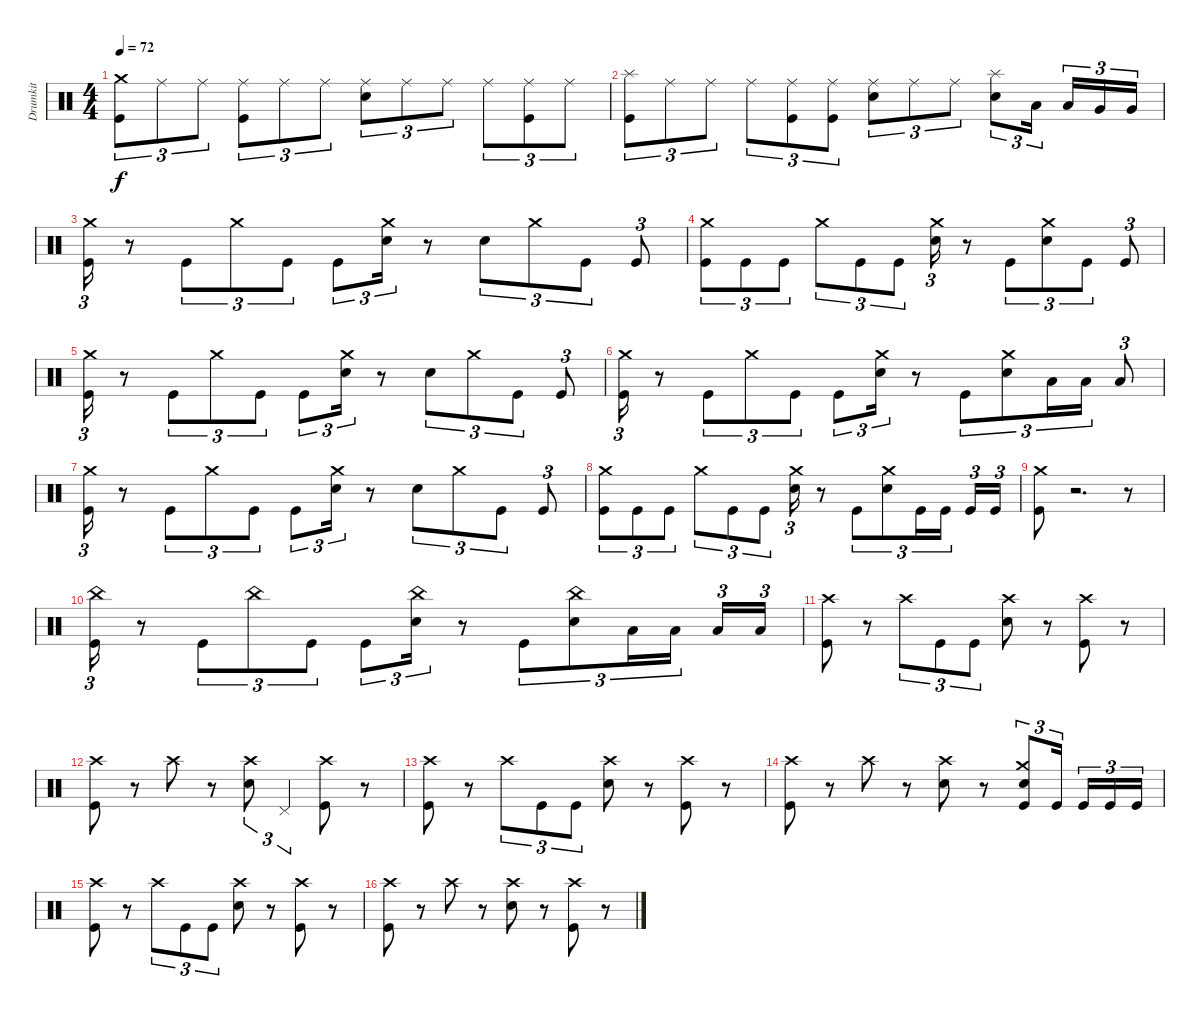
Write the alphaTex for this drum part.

\track ("Drumkit" "Drumkit") {instrument percussion}
\staff {score}
\articulation defaults
\ts (4 4)
\tempo 72
\clef neutral
\ks c
("Kick (hit)" "Crash medium (hit)").8{tu (3 2) dy f} "Ride (middle)".8{tu (3 2)} "Ride (middle)".8{tu (3 2)} ("Kick (hit)" "Ride (middle)").8{tu (3 2)} "Ride (middle)".8{tu (3 2)} "Ride (middle)".8{tu (3 2)} ("Snare (hit) 2" "Ride (middle)").8{tu (3 2)} "Ride (middle)".8{tu (3 2)} "Ride (middle)".8{tu (3 2)} "Ride (middle)".8{tu (3 2)} ("Kick (hit)" "Ride (middle)").8{tu (3 2)} "Ride (middle)".8{tu (3 2)} |
("Kick (hit)" "Splash (hit)").8{tu (3 2)} "Ride (middle)".8{tu (3 2)} "Ride (middle)".8{tu (3 2)} "Ride (middle)".8{tu (3 2)} ("Kick (hit)" "Ride (middle)").8{tu (3 2)} ("Kick (hit)" "Ride (middle)").8{tu (3 2)} ("Snare (hit) 2" "Ride (middle)").8{tu (3 2)} "Ride (middle)".8{tu (3 2)} "Ride (middle)".8{tu (3 2)} ("Snare (hit) 2" "Splash (hit)").8{tu (3 2)} "Low Tom (hit)".16{tu (3 2) beam splitsecondary} "Low Tom (hit)".16{tu (3 2)} "Very Low Tom (hit)".16{tu (3 2)} "Very Low Tom (hit)".16{tu (3 2)} |
("Kick (hit)" "Crash medium (hit)").16{tu (3 2)} r.8 "Kick (hit)".8{tu (3 2)} "Crash medium (hit)".8{tu (3 2)} "Kick (hit)".8{tu (3 2)} "Kick (hit)".8{tu (3 2)} ("Snare (hit) 2" "Crash medium (hit)").16{tu (3 2)} r.8 "Snare (hit) 2".8{tu (3 2)} "Crash medium (hit)".8{tu (3 2)} "Kick (hit)".8{tu (3 2)} "Kick (hit)".8{tu (3 2)} |
("Kick (hit)" "Crash medium (hit)").8{tu (3 2)} "Kick (hit)".8{tu (3 2)} "Kick (hit)".8{tu (3 2)} "Crash medium (hit)".8{tu (3 2)} "Kick (hit)".8{tu (3 2)} "Kick (hit)".8{tu (3 2)} ("Snare (hit) 2" "Crash medium (hit)").16{tu (3 2)} r.8 "Kick (hit)".8{tu (3 2)} ("Snare (hit) 2" "Crash medium (hit)").8{tu (3 2)} "Kick (hit)".8{tu (3 2)} "Kick (hit)".8{tu (3 2)} |
("Kick (hit)" "Crash medium (hit)").16{tu (3 2)} r.8 "Kick (hit)".8{tu (3 2)} "Crash medium (hit)".8{tu (3 2)} "Kick (hit)".8{tu (3 2)} "Kick (hit)".8{tu (3 2)} ("Snare (hit) 2" "Crash medium (hit)").16{tu (3 2)} r.8 "Snare (hit) 2".8{tu (3 2)} "Crash medium (hit)".8{tu (3 2)} "Kick (hit)".8{tu (3 2)} "Kick (hit)".8{tu (3 2)} |
("Kick (hit)" "Crash medium (hit)").16{tu (3 2)} r.8 "Kick (hit)".8{tu (3 2)} "Crash medium (hit)".8{tu (3 2)} "Kick (hit)".8{tu (3 2)} "Kick (hit)".8{tu (3 2)} ("Snare (hit) 2" "Crash medium (hit)").16{tu (3 2)} r.8 "Kick (hit)".8{tu (3 2)} ("Snare (hit) 2" "Crash medium (hit)").8{tu (3 2)} "Low Tom (hit)".16{tu (3 2)} "Low Tom (hit)".16{tu (3 2)} "Low Floor Tom (hit)".8{tu (3 2)} |
("Kick (hit)" "Crash medium (hit)").16{tu (3 2)} r.8 "Kick (hit)".8{tu (3 2)} "Crash medium (hit)".8{tu (3 2)} "Kick (hit)".8{tu (3 2)} "Kick (hit)".8{tu (3 2)} ("Snare (hit) 2" "Crash medium (hit)").16{tu (3 2)} r.8 "Snare (hit) 2".8{tu (3 2)} "Crash medium (hit)".8{tu (3 2)} "Kick (hit)".8{tu (3 2)} "Kick (hit)".8{tu (3 2)} |
("Kick (hit)" "Crash medium (hit)").8{tu (3 2)} "Kick (hit)".8{tu (3 2)} "Kick (hit)".8{tu (3 2)} "Crash medium (hit)".8{tu (3 2)} "Kick (hit)".8{tu (3 2)} "Kick (hit)".8{tu (3 2)} ("Snare (hit) 2" "Crash medium (hit)").16{tu (3 2)} r.8 "Kick (hit)".8{tu (3 2)} ("Snare (hit) 2" "Crash medium (hit)").8{tu (3 2)} "Kick (hit)".16{tu (3 2)} "Kick (hit)".16{tu (3 2) beam splitsecondary} "Kick (hit)".16{tu (3 2)} "Kick (hit)".16{tu (3 2)} |
("Kick (hit)" "Crash medium (hit)").8 r.2{d} r.8 |
("Kick (hit)" "China (hit)").16{tu (3 2)} r.8 "Kick (hit)".8{tu (3 2)} "China (hit)".8{tu (3 2)} "Kick (hit)".8{tu (3 2)} "Kick (hit)".8{tu (3 2)} ("Snare (hit) 2" "China (hit)").16{tu (3 2)} r.8 "Kick (hit)".8{tu (3 2)} ("Snare (hit) 2" "China (hit)").8{tu (3 2)} "Low Tom (hit)".16{tu (3 2)} "Low Tom (hit)".16{tu (3 2) beam splitsecondary} "Low Floor Tom (hit)".16{tu (3 2)} "Low Floor Tom (hit)".16{tu (3 2)} |
("Kick (hit)" "Crash high (hit)").8 r.8 "Crash high (hit)".8{tu (3 2)} "Kick (hit)".8{tu (3 2)} "Kick (hit)".8{tu (3 2)} ("Snare (hit) 2" "Crash high (hit)").8 r.8 ("Kick (hit)" "Crash high (hit)").8 r.8 |
("Kick (hit)" "Crash high (hit)").8 r.8 "Crash high (hit)".8 r.8 ("Snare (hit) 2" "Crash high (hit)").8{tu (3 2)} "Pedal Hi-Hat (hit)".4{tu (3 2)} ("Kick (hit)" "Crash high (hit)").8 r.8 |
("Kick (hit)" "Crash high (hit)").8 r.8 "Crash high (hit)".8{tu (3 2)} "Kick (hit)".8{tu (3 2)} "Kick (hit)".8{tu (3 2)} ("Snare (hit) 2" "Crash high (hit)").8 r.8 ("Kick (hit)" "Crash high (hit)").8 r.8 |
("Kick (hit)" "Crash high (hit)").8 r.8 "Crash high (hit)".8 r.8 ("Snare (hit) 2" "Crash high (hit)").8 r.8 ("Kick (hit)" "Snare (hit) 2" "Crash medium (hit)").8{tu (3 2)} "Kick (hit)".16{tu (3 2) beam splitsecondary} "Kick (hit)".16{tu (3 2)} "Kick (hit)".16{tu (3 2)} "Kick (hit)".16{tu (3 2)} |
("Kick (hit)" "Crash high (hit)").8 r.8 "Crash high (hit)".8{tu (3 2)} "Kick (hit)".8{tu (3 2)} "Kick (hit)".8{tu (3 2)} ("Snare (hit) 2" "Crash high (hit)").8 r.8 ("Kick (hit)" "Crash high (hit)").8 r.8 |
("Kick (hit)" "Crash high (hit)").8 r.8 "Crash high (hit)".8 r.8 ("Snare (hit) 2" "Crash high (hit)").8 r.8 ("Kick (hit)" "Crash high (hit)").8 r.8
